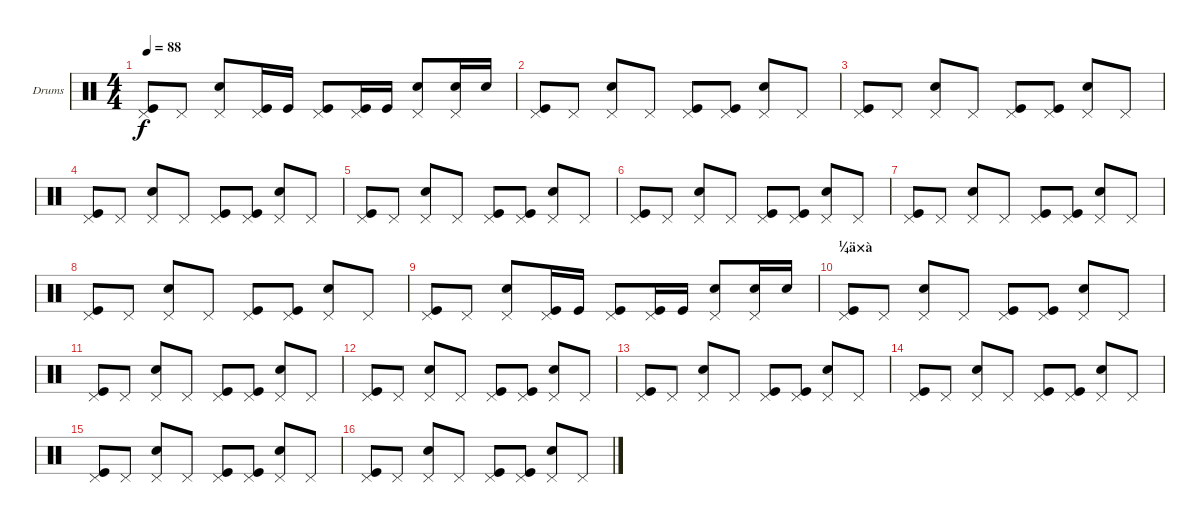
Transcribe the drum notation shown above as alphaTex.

\bracketExtendMode groupsimilarinstruments
\firstSystemTrackNameOrientation horizontal
\otherSystemsTrackNameOrientation horizontal
\track ("Drumkit" "Drums") {instrument percussion}
\staff {score}
\articulation defaults
\ts (4 4)
\tempo 88
\clef neutral
\ks c
("Pedal Hi-Hat (hit)" "Kick (hit)").8{dy f} "Pedal Hi-Hat (hit)".8 ("Pedal Hi-Hat (hit)" "Snare (hit) 2").8 ("Pedal Hi-Hat (hit)" "Kick (hit)").16 "Kick (hit)".16 ("Pedal Hi-Hat (hit)" "Kick (hit)").8 ("Pedal Hi-Hat (hit)" "Kick (hit)").16 "Kick (hit)".16 ("Pedal Hi-Hat (hit)" "Snare (hit) 2").8 ("Pedal Hi-Hat (hit)" "Snare (hit) 2").16 "Snare (hit) 2".16 |
("Pedal Hi-Hat (hit)" "Kick (hit)").8 "Pedal Hi-Hat (hit)".8 ("Pedal Hi-Hat (hit)" "Snare (hit) 2").8 "Pedal Hi-Hat (hit)".8 ("Pedal Hi-Hat (hit)" "Kick (hit)").8 ("Pedal Hi-Hat (hit)" "Kick (hit)").8 ("Pedal Hi-Hat (hit)" "Snare (hit) 2").8 "Pedal Hi-Hat (hit)".8 |
("Pedal Hi-Hat (hit)" "Kick (hit)").8 "Pedal Hi-Hat (hit)".8 ("Pedal Hi-Hat (hit)" "Snare (hit) 2").8 "Pedal Hi-Hat (hit)".8 ("Pedal Hi-Hat (hit)" "Kick (hit)").8 ("Pedal Hi-Hat (hit)" "Kick (hit)").8 ("Pedal Hi-Hat (hit)" "Snare (hit) 2").8 "Pedal Hi-Hat (hit)".8 |
("Pedal Hi-Hat (hit)" "Kick (hit)").8 "Pedal Hi-Hat (hit)".8 ("Pedal Hi-Hat (hit)" "Snare (hit) 2").8 "Pedal Hi-Hat (hit)".8 ("Pedal Hi-Hat (hit)" "Kick (hit)").8 ("Pedal Hi-Hat (hit)" "Kick (hit)").8 ("Pedal Hi-Hat (hit)" "Snare (hit) 2").8 "Pedal Hi-Hat (hit)".8 |
("Pedal Hi-Hat (hit)" "Kick (hit)").8 "Pedal Hi-Hat (hit)".8 ("Pedal Hi-Hat (hit)" "Snare (hit) 2").8 "Pedal Hi-Hat (hit)".8 ("Pedal Hi-Hat (hit)" "Kick (hit)").8 ("Pedal Hi-Hat (hit)" "Kick (hit)").8 ("Pedal Hi-Hat (hit)" "Snare (hit) 2").8 "Pedal Hi-Hat (hit)".8 |
("Pedal Hi-Hat (hit)" "Kick (hit)").8 "Pedal Hi-Hat (hit)".8 ("Pedal Hi-Hat (hit)" "Snare (hit) 2").8 "Pedal Hi-Hat (hit)".8 ("Pedal Hi-Hat (hit)" "Kick (hit)").8 ("Pedal Hi-Hat (hit)" "Kick (hit)").8 ("Pedal Hi-Hat (hit)" "Snare (hit) 2").8 "Pedal Hi-Hat (hit)".8 |
("Pedal Hi-Hat (hit)" "Kick (hit)").8 "Pedal Hi-Hat (hit)".8 ("Pedal Hi-Hat (hit)" "Snare (hit) 2").8 "Pedal Hi-Hat (hit)".8 ("Pedal Hi-Hat (hit)" "Kick (hit)").8 ("Pedal Hi-Hat (hit)" "Kick (hit)").8 ("Pedal Hi-Hat (hit)" "Snare (hit) 2").8 "Pedal Hi-Hat (hit)".8 |
("Pedal Hi-Hat (hit)" "Kick (hit)").8 "Pedal Hi-Hat (hit)".8 ("Pedal Hi-Hat (hit)" "Snare (hit) 2").8 "Pedal Hi-Hat (hit)".8 ("Pedal Hi-Hat (hit)" "Kick (hit)").8 ("Pedal Hi-Hat (hit)" "Kick (hit)").8 ("Pedal Hi-Hat (hit)" "Snare (hit) 2").8 "Pedal Hi-Hat (hit)".8 |
("Pedal Hi-Hat (hit)" "Kick (hit)").8 "Pedal Hi-Hat (hit)".8 ("Pedal Hi-Hat (hit)" "Snare (hit) 2").8 ("Pedal Hi-Hat (hit)" "Kick (hit)").16 "Kick (hit)".16 ("Pedal Hi-Hat (hit)" "Kick (hit)").8 ("Pedal Hi-Hat (hit)" "Kick (hit)").16 "Kick (hit)".16 ("Pedal Hi-Hat (hit)" "Snare (hit) 2").8 ("Pedal Hi-Hat (hit)" "Snare (hit) 2").16 "Snare (hit) 2".16 |
\section ("" "¼ä×à")
("Pedal Hi-Hat (hit)" "Kick (hit)").8 "Pedal Hi-Hat (hit)".8 ("Pedal Hi-Hat (hit)" "Snare (hit) 2").8 "Pedal Hi-Hat (hit)".8 ("Pedal Hi-Hat (hit)" "Kick (hit)").8 ("Pedal Hi-Hat (hit)" "Kick (hit)").8 ("Pedal Hi-Hat (hit)" "Snare (hit) 2").8 "Pedal Hi-Hat (hit)".8 |
("Pedal Hi-Hat (hit)" "Kick (hit)").8 "Pedal Hi-Hat (hit)".8 ("Pedal Hi-Hat (hit)" "Snare (hit) 2").8 "Pedal Hi-Hat (hit)".8 ("Pedal Hi-Hat (hit)" "Kick (hit)").8 ("Pedal Hi-Hat (hit)" "Kick (hit)").8 ("Pedal Hi-Hat (hit)" "Snare (hit) 2").8 "Pedal Hi-Hat (hit)".8 |
("Pedal Hi-Hat (hit)" "Kick (hit)").8 "Pedal Hi-Hat (hit)".8 ("Pedal Hi-Hat (hit)" "Snare (hit) 2").8 "Pedal Hi-Hat (hit)".8 ("Pedal Hi-Hat (hit)" "Kick (hit)").8 ("Pedal Hi-Hat (hit)" "Kick (hit)").8 ("Pedal Hi-Hat (hit)" "Snare (hit) 2").8 "Pedal Hi-Hat (hit)".8 |
("Pedal Hi-Hat (hit)" "Kick (hit)").8 "Pedal Hi-Hat (hit)".8 ("Pedal Hi-Hat (hit)" "Snare (hit) 2").8 "Pedal Hi-Hat (hit)".8 ("Pedal Hi-Hat (hit)" "Kick (hit)").8 ("Pedal Hi-Hat (hit)" "Kick (hit)").8 ("Pedal Hi-Hat (hit)" "Snare (hit) 2").8 "Pedal Hi-Hat (hit)".8 |
("Pedal Hi-Hat (hit)" "Kick (hit)").8 "Pedal Hi-Hat (hit)".8 ("Pedal Hi-Hat (hit)" "Snare (hit) 2").8 "Pedal Hi-Hat (hit)".8 ("Pedal Hi-Hat (hit)" "Kick (hit)").8 ("Pedal Hi-Hat (hit)" "Kick (hit)").8 ("Pedal Hi-Hat (hit)" "Snare (hit) 2").8 "Pedal Hi-Hat (hit)".8 |
("Pedal Hi-Hat (hit)" "Kick (hit)").8 "Pedal Hi-Hat (hit)".8 ("Pedal Hi-Hat (hit)" "Snare (hit) 2").8 "Pedal Hi-Hat (hit)".8 ("Pedal Hi-Hat (hit)" "Kick (hit)").8 ("Pedal Hi-Hat (hit)" "Kick (hit)").8 ("Pedal Hi-Hat (hit)" "Snare (hit) 2").8 "Pedal Hi-Hat (hit)".8 |
("Pedal Hi-Hat (hit)" "Kick (hit)").8 "Pedal Hi-Hat (hit)".8 ("Pedal Hi-Hat (hit)" "Snare (hit) 2").8 "Pedal Hi-Hat (hit)".8 ("Pedal Hi-Hat (hit)" "Kick (hit)").8 ("Pedal Hi-Hat (hit)" "Kick (hit)").8 ("Pedal Hi-Hat (hit)" "Snare (hit) 2").8 "Pedal Hi-Hat (hit)".8
